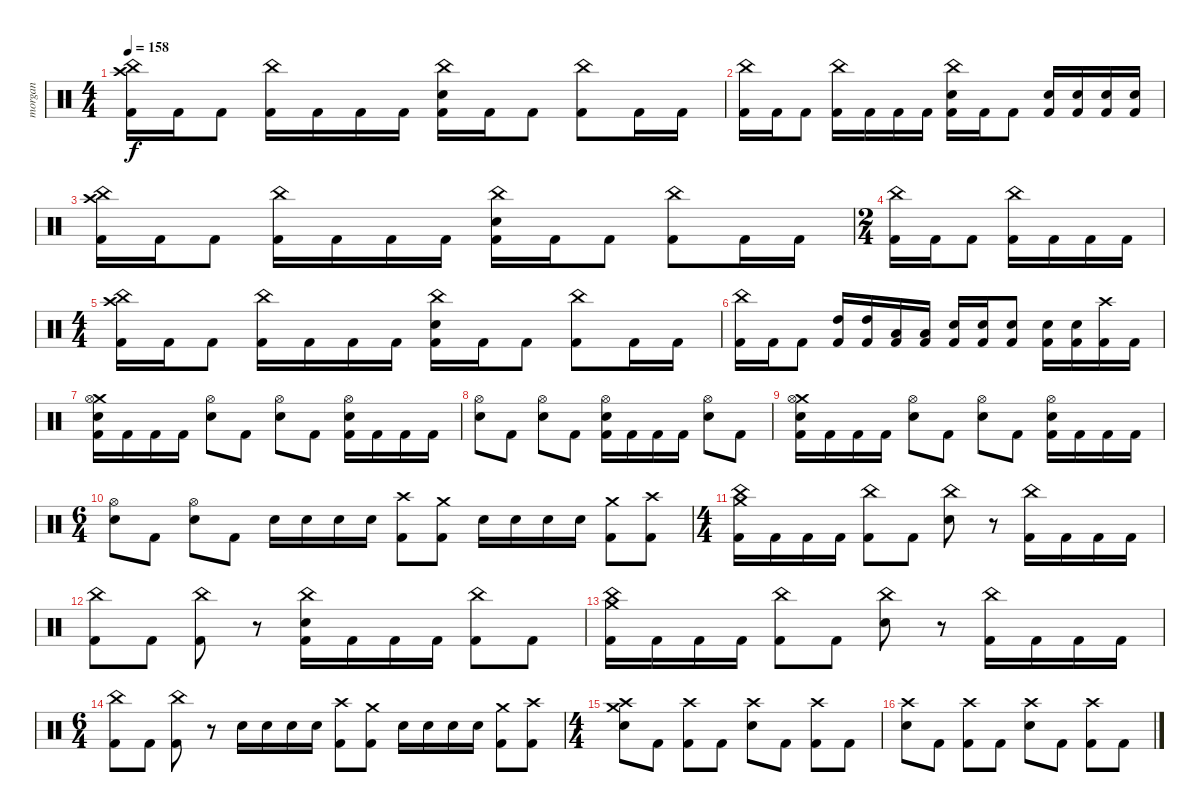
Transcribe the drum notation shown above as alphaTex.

\track ("morgan" "morgan") {instrument percussion}
\staff {score}
\articulation defaults
\ts (4 4)
\tempo 158
\clef neutral
\ks c
("Crash high (hit)" "China (hit)" "Kick (hit) 2").16{dy f} "Kick (hit) 2".16 "Kick (hit) 2".8 ("China (hit)" "Kick (hit) 2").16 "Kick (hit) 2".16 "Kick (hit) 2".16 "Kick (hit) 2".16 ("China (hit)" "Electric Snare (hit)" "Kick (hit) 2").16 "Kick (hit) 2".16 "Kick (hit) 2".8 ("China (hit)" "Kick (hit) 2").8 "Kick (hit) 2".16 "Kick (hit) 2".16 |
("China (hit)" "Kick (hit) 2").16 "Kick (hit) 2".16 "Kick (hit) 2".8 ("China (hit)" "Kick (hit) 2").16 "Kick (hit) 2".16 "Kick (hit) 2".16 "Kick (hit) 2".16 ("China (hit)" "Electric Snare (hit)" "Kick (hit) 2").16 "Kick (hit) 2".16 "Kick (hit) 2".8 ("Electric Snare (hit)" "Kick (hit) 2").16 ("Electric Snare (hit)" "Kick (hit) 2").16 ("Electric Snare (hit)" "Kick (hit) 2").16 ("Electric Snare (hit)" "Kick (hit) 2").16 |
("Crash high (hit)" "China (hit)" "Kick (hit) 2").16 "Kick (hit) 2".16 "Kick (hit) 2".8 ("China (hit)" "Kick (hit) 2").16 "Kick (hit) 2".16 "Kick (hit) 2".16 "Kick (hit) 2".16 ("China (hit)" "Electric Snare (hit)" "Kick (hit) 2").16 "Kick (hit) 2".16 "Kick (hit) 2".8 ("China (hit)" "Kick (hit) 2").8 "Kick (hit) 2".16 "Kick (hit) 2".16 |
\ts (2 4)
("China (hit)" "Kick (hit) 2").16 "Kick (hit) 2".16 "Kick (hit) 2".8 ("China (hit)" "Kick (hit) 2").16 "Kick (hit) 2".16 "Kick (hit) 2".16 "Kick (hit) 2".16 |
\ts (4 4)
("Crash high (hit)" "China (hit)" "Kick (hit) 2").16 "Kick (hit) 2".16 "Kick (hit) 2".8 ("China (hit)" "Kick (hit) 2").16 "Kick (hit) 2".16 "Kick (hit) 2".16 "Kick (hit) 2".16 ("China (hit)" "Electric Snare (hit)" "Kick (hit) 2").16 "Kick (hit) 2".16 "Kick (hit) 2".8 ("China (hit)" "Kick (hit) 2").8 "Kick (hit) 2".16 "Kick (hit) 2".16 |
("China (hit)" "Kick (hit) 2").16 "Kick (hit) 2".16 "Kick (hit) 2".8 ("High Tom (hit)" "Kick (hit) 2").16 ("High Tom (hit)" "Kick (hit) 2").16 ("Low Tom (hit)" "Kick (hit) 2").16 ("Low Tom (hit)" "Kick (hit) 2").16 ("Electric Snare (hit)" "Kick (hit) 2").16 ("Electric Snare (hit)" "Kick (hit) 2").16 ("Electric Snare (hit)" "Kick (hit) 2").8 ("Electric Snare (hit)" "Kick (hit) 2").16 ("Electric Snare (hit)" "Kick (hit) 2").16 ("Crash high (hit)" "Kick (hit) 2").16 "Kick (hit) 2".16 |
("Crash medium (hit)" "Hi-Hat (open)" "Electric Snare (hit)" "Kick (hit) 2").16 "Kick (hit) 2".16 "Kick (hit) 2".16 "Kick (hit) 2".16 ("Hi-Hat (open)" "Electric Snare (hit)").8 "Kick (hit) 2".8 ("Hi-Hat (open)" "Electric Snare (hit)").8 "Kick (hit) 2".8 ("Hi-Hat (open)" "Electric Snare (hit)" "Kick (hit) 2").16 "Kick (hit) 2".16 "Kick (hit) 2".16 "Kick (hit) 2".16 |
("Hi-Hat (open)" "Electric Snare (hit)").8 "Kick (hit) 2".8 ("Hi-Hat (open)" "Electric Snare (hit)").8 "Kick (hit) 2".8 ("Hi-Hat (open)" "Electric Snare (hit)" "Kick (hit) 2").16 "Kick (hit) 2".16 "Kick (hit) 2".16 "Kick (hit) 2".16 ("Hi-Hat (open)" "Electric Snare (hit)").8 "Kick (hit) 2".8 |
("Crash medium (hit)" "Hi-Hat (open)" "Electric Snare (hit)" "Kick (hit) 2").16 "Kick (hit) 2".16 "Kick (hit) 2".16 "Kick (hit) 2".16 ("Hi-Hat (open)" "Electric Snare (hit)").8 "Kick (hit) 2".8 ("Hi-Hat (open)" "Electric Snare (hit)").8 "Kick (hit) 2".8 ("Hi-Hat (open)" "Electric Snare (hit)" "Kick (hit) 2").16 "Kick (hit) 2".16 "Kick (hit) 2".16 "Kick (hit) 2".16 |
\ts (6 4)
("Hi-Hat (open)" "Electric Snare (hit)").8 "Kick (hit) 2".8 ("Hi-Hat (open)" "Electric Snare (hit)").8 "Kick (hit) 2".8 "Electric Snare (hit)".16 "Electric Snare (hit)".16 "Electric Snare (hit)".16 "Electric Snare (hit)".16 ("Crash high (hit)" "Kick (hit) 2").8 ("Crash medium (hit)" "Kick (hit) 2").8 "Electric Snare (hit)".16 "Electric Snare (hit)".16 "Electric Snare (hit)".16 "Electric Snare (hit)".16 ("Crash medium (hit)" "Kick (hit) 2").8 ("Crash high (hit)" "Kick (hit) 2").8 |
\ts (4 4)
("Crash medium (hit)" "China (hit)" "Kick (hit) 2").16 "Kick (hit) 2".16 "Kick (hit) 2".16 "Kick (hit) 2".16 ("China (hit)" "Kick (hit) 2").8 "Kick (hit) 2".8 ("China (hit)" "Electric Snare (hit)").8 r.8 ("China (hit)" "Kick (hit) 2").16 "Kick (hit) 2".16 "Kick (hit) 2".16 "Kick (hit) 2".16 |
("China (hit)" "Kick (hit) 2").8 "Kick (hit) 2".8 ("China (hit)" "Kick (hit) 2").8 r.8 ("China (hit)" "Electric Snare (hit)" "Kick (hit) 2").16 "Kick (hit) 2".16 "Kick (hit) 2".16 "Kick (hit) 2".16 ("China (hit)" "Kick (hit) 2").8 "Kick (hit) 2".8 |
("Crash medium (hit)" "China (hit)" "Kick (hit) 2").16 "Kick (hit) 2".16 "Kick (hit) 2".16 "Kick (hit) 2".16 ("China (hit)" "Kick (hit) 2").8 "Kick (hit) 2".8 ("China (hit)" "Electric Snare (hit)").8 r.8 ("China (hit)" "Kick (hit) 2").16 "Kick (hit) 2".16 "Kick (hit) 2".16 "Kick (hit) 2".16 |
\ts (6 4)
("China (hit)" "Kick (hit) 2").8 "Kick (hit) 2".8 ("China (hit)" "Kick (hit) 2").8 r.8 "Electric Snare (hit)".16 "Electric Snare (hit)".16 "Electric Snare (hit)".16 "Electric Snare (hit)".16 ("Crash high (hit)" "Kick (hit) 2").8 ("Crash medium (hit)" "Kick (hit) 2").8 "Electric Snare (hit)".16 "Electric Snare (hit)".16 "Electric Snare (hit)".16 "Electric Snare (hit)".16 ("Crash medium (hit)" "Kick (hit) 2").8 ("Crash high (hit)" "Kick (hit) 2").8 |
\ts (4 4)
("Crash medium (hit)" "Crash high (hit)" "Electric Snare (hit)").8 "Kick (hit) 2".8 ("Crash high (hit)" "Kick (hit) 2").8 "Kick (hit) 2".8 ("Crash high (hit)" "Electric Snare (hit)").8 "Kick (hit) 2".8 ("Crash high (hit)" "Kick (hit) 2").8 "Kick (hit) 2".8 |
("Crash high (hit)" "Electric Snare (hit)").8 "Kick (hit) 2".8 ("Crash high (hit)" "Kick (hit) 2").8 "Kick (hit) 2".8 ("Crash high (hit)" "Electric Snare (hit)").8 "Kick (hit) 2".8 ("Crash high (hit)" "Kick (hit) 2").8 "Kick (hit) 2".8
